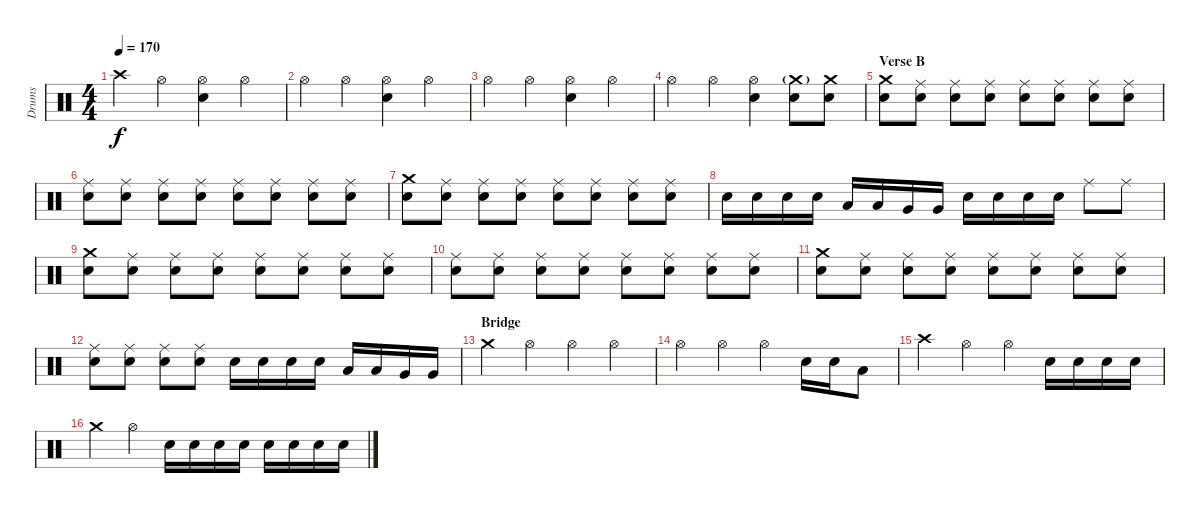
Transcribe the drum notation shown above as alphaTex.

\track ("Drums" "Drums") {instrument percussion}
\staff {score}
\articulation defaults
\ts (4 4)
\tempo 170
\clef neutral
\ks c "Crash high (hit)".4{dy f} "Hi-Hat (open)".4
("Hi-Hat (open)" "Electric Snare (hit)").4 "Hi-Hat (open)".4 |
"Hi-Hat (open)".4 "Hi-Hat (open)".4 ("Hi-Hat (open)" "Electric Snare (hit)").4 "Hi-Hat (open)".4 |
"Hi-Hat (open)".4 "Hi-Hat (open)".4 ("Hi-Hat (open)" "Electric Snare (hit)").4 "Hi-Hat (open)".4 |
"Hi-Hat (open)".4 "Hi-Hat (open)".4 ("Hi-Hat (open)" "Electric Snare (hit)").4 ("Crash medium (hit)"{g} "Electric Snare (hit)").8 ("Crash medium (hit)" "Electric Snare (hit)").8 |
\section ("" "Verse B")
("Crash medium (hit)" "Electric Snare (hit)").8 ("Ride (middle)" "Electric Snare (hit)").8 ("Ride (middle)" "Electric Snare (hit)").8 ("Ride (middle)" "Electric Snare (hit)").8 ("Ride (middle)" "Electric Snare (hit)").8 ("Ride (middle)" "Electric Snare (hit)").8 ("Ride (middle)" "Electric Snare (hit)").8 ("Ride (middle)" "Electric Snare (hit)").8 |
("Ride (middle)" "Electric Snare (hit)").8 ("Ride (middle)" "Electric Snare (hit)").8 ("Ride (middle)" "Electric Snare (hit)").8 ("Ride (middle)" "Electric Snare (hit)").8 ("Ride (middle)" "Electric Snare (hit)").8 ("Ride (middle)" "Electric Snare (hit)").8 ("Ride (middle)" "Electric Snare (hit)").8 ("Ride (middle)" "Electric Snare (hit)").8 |
("Crash medium (hit)" "Electric Snare (hit)").8 ("Ride (middle)" "Electric Snare (hit)").8 ("Ride (middle)" "Electric Snare (hit)").8 ("Ride (middle)" "Electric Snare (hit)").8 ("Ride (middle)" "Electric Snare (hit)").8 ("Ride (middle)" "Electric Snare (hit)").8 ("Ride (middle)" "Electric Snare (hit)").8 ("Ride (middle)" "Electric Snare (hit)").8 |
"Electric Snare (hit)".16 "Electric Snare (hit)".16 "Electric Snare (hit)".16 "Electric Snare (hit)".16 "Low Tom (hit)".16 "Low Tom (hit)".16 "Very Low Tom (hit)".16 "Very Low Tom (hit)".16 "Electric Snare (hit)".16 "Electric Snare (hit)".16 "Electric Snare (hit)".16 "Electric Snare (hit)".16 "Ride (middle)".8 "Ride (middle)".8 |
("Crash medium (hit)" "Electric Snare (hit)").8 ("Ride (middle)" "Electric Snare (hit)").8 ("Ride (middle)" "Electric Snare (hit)").8 ("Ride (middle)" "Electric Snare (hit)").8 ("Ride (middle)" "Electric Snare (hit)").8 ("Ride (middle)" "Electric Snare (hit)").8 ("Ride (middle)" "Electric Snare (hit)").8 ("Ride (middle)" "Electric Snare (hit)").8 |
("Ride (middle)" "Electric Snare (hit)").8 ("Ride (middle)" "Electric Snare (hit)").8 ("Ride (middle)" "Electric Snare (hit)").8 ("Ride (middle)" "Electric Snare (hit)").8 ("Ride (middle)" "Electric Snare (hit)").8 ("Ride (middle)" "Electric Snare (hit)").8 ("Ride (middle)" "Electric Snare (hit)").8 ("Ride (middle)" "Electric Snare (hit)").8 |
("Crash medium (hit)" "Electric Snare (hit)").8 ("Ride (middle)" "Electric Snare (hit)").8 ("Ride (middle)" "Electric Snare (hit)").8 ("Ride (middle)" "Electric Snare (hit)").8 ("Ride (middle)" "Electric Snare (hit)").8 ("Ride (middle)" "Electric Snare (hit)").8 ("Ride (middle)" "Electric Snare (hit)").8 ("Ride (middle)" "Electric Snare (hit)").8 |
("Ride (middle)" "Electric Snare (hit)").8 ("Ride (middle)" "Electric Snare (hit)").8 ("Ride (middle)" "Electric Snare (hit)").8 ("Ride (middle)" "Electric Snare (hit)").8 "Electric Snare (hit)".16 "Electric Snare (hit)".16 "Electric Snare (hit)".16 "Electric Snare (hit)".16 "Low Tom (hit)".16 "Low Tom (hit)".16 "Very Low Tom (hit)".16 "Very Low Tom (hit)".16 |
\section ("" "Bridge")
"Crash medium (hit)".4 "Hi-Hat (open)".4 "Hi-Hat (open)".4 "Hi-Hat (open)".4 |
"Hi-Hat (open)".4 "Hi-Hat (open)".4 "Hi-Hat (open)".4 "Electric Snare (hit)".16 "Electric Snare (hit)".16 "Low Tom (hit)".8 |
"Crash high (hit)".4 "Hi-Hat (open)".4 "Hi-Hat (open)".4 "Electric Snare (hit)".16 "Electric Snare (hit)".16 "Electric Snare (hit)".16 "Electric Snare (hit)".16 |
"Crash medium (hit)".4 "Hi-Hat (open)".4 "Electric Snare (hit)".16 "Electric Snare (hit)".16 "Electric Snare (hit)".16 "Electric Snare (hit)".16 "Electric Snare (hit)".16 "Electric Snare (hit)".16 "Electric Snare (hit)".16 "Electric Snare (hit)".16
